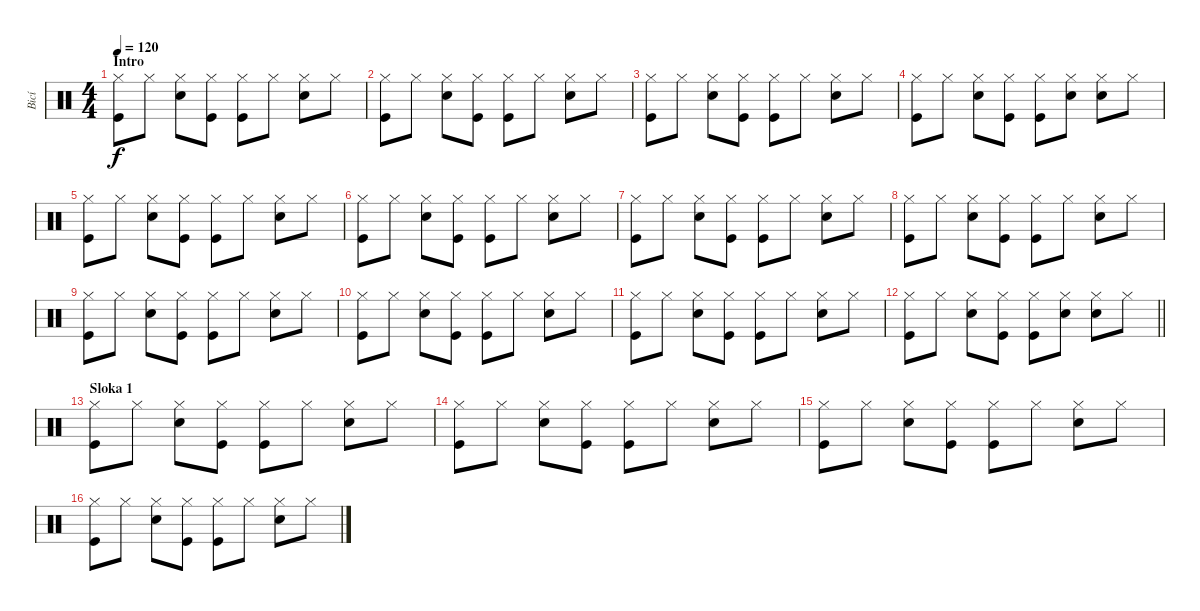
\track ("Bicí" "Bicí") {instrument percussion}
\staff {score}
\articulation defaults
\ts (4 4)
\section ("" "Intro")
\tempo 120
\clef neutral
\ks c
("Hi-Hat (closed)" "Kick (hit)").8{dy f} "Hi-Hat (closed)".8 ("Hi-Hat (closed)" "Snare (hit) 2").8 ("Hi-Hat (closed)" "Kick (hit)").8 ("Hi-Hat (closed)" "Kick (hit)").8 "Hi-Hat (closed)".8 ("Hi-Hat (closed)" "Snare (hit) 2").8 "Hi-Hat (closed)".8 |
("Hi-Hat (closed)" "Kick (hit)").8 "Hi-Hat (closed)".8 ("Hi-Hat (closed)" "Snare (hit) 2").8 ("Hi-Hat (closed)" "Kick (hit)").8 ("Hi-Hat (closed)" "Kick (hit)").8 "Hi-Hat (closed)".8 ("Hi-Hat (closed)" "Snare (hit) 2").8 "Hi-Hat (closed)".8 |
("Hi-Hat (closed)" "Kick (hit)").8 "Hi-Hat (closed)".8 ("Hi-Hat (closed)" "Snare (hit) 2").8 ("Hi-Hat (closed)" "Kick (hit)").8 ("Hi-Hat (closed)" "Kick (hit)").8 "Hi-Hat (closed)".8 ("Hi-Hat (closed)" "Snare (hit) 2").8 "Hi-Hat (closed)".8 |
("Hi-Hat (closed)" "Kick (hit)").8 "Hi-Hat (closed)".8 ("Hi-Hat (closed)" "Snare (hit) 2").8 ("Hi-Hat (closed)" "Kick (hit)").8 ("Hi-Hat (closed)" "Kick (hit)").8 ("Hi-Hat (closed)" "Snare (hit) 2").8 ("Hi-Hat (closed)" "Snare (hit) 2").8 "Hi-Hat (closed)".8 |
("Hi-Hat (closed)" "Kick (hit)").8 "Hi-Hat (closed)".8 ("Hi-Hat (closed)" "Snare (hit) 2").8 ("Hi-Hat (closed)" "Kick (hit)").8 ("Hi-Hat (closed)" "Kick (hit)").8 "Hi-Hat (closed)".8 ("Hi-Hat (closed)" "Snare (hit) 2").8 "Hi-Hat (closed)".8 |
("Hi-Hat (closed)" "Kick (hit)").8 "Hi-Hat (closed)".8 ("Hi-Hat (closed)" "Snare (hit) 2").8 ("Hi-Hat (closed)" "Kick (hit)").8 ("Hi-Hat (closed)" "Kick (hit)").8 "Hi-Hat (closed)".8 ("Hi-Hat (closed)" "Snare (hit) 2").8 "Hi-Hat (closed)".8 |
("Hi-Hat (closed)" "Kick (hit)").8 "Hi-Hat (closed)".8 ("Hi-Hat (closed)" "Snare (hit) 2").8 ("Hi-Hat (closed)" "Kick (hit)").8 ("Hi-Hat (closed)" "Kick (hit)").8 "Hi-Hat (closed)".8 ("Hi-Hat (closed)" "Snare (hit) 2").8 "Hi-Hat (closed)".8 |
("Hi-Hat (closed)" "Kick (hit)").8 "Hi-Hat (closed)".8 ("Hi-Hat (closed)" "Snare (hit) 2").8 ("Hi-Hat (closed)" "Kick (hit)").8 ("Hi-Hat (closed)" "Kick (hit)").8 "Hi-Hat (closed)".8 ("Hi-Hat (closed)" "Snare (hit) 2").8 "Hi-Hat (closed)".8 |
("Hi-Hat (closed)" "Kick (hit)").8 "Hi-Hat (closed)".8 ("Hi-Hat (closed)" "Snare (hit) 2").8 ("Hi-Hat (closed)" "Kick (hit)").8 ("Hi-Hat (closed)" "Kick (hit)").8 "Hi-Hat (closed)".8 ("Hi-Hat (closed)" "Snare (hit) 2").8 "Hi-Hat (closed)".8 |
("Hi-Hat (closed)" "Kick (hit)").8 "Hi-Hat (closed)".8 ("Hi-Hat (closed)" "Snare (hit) 2").8 ("Hi-Hat (closed)" "Kick (hit)").8 ("Hi-Hat (closed)" "Kick (hit)").8 "Hi-Hat (closed)".8 ("Hi-Hat (closed)" "Snare (hit) 2").8 "Hi-Hat (closed)".8 |
("Hi-Hat (closed)" "Kick (hit)").8 "Hi-Hat (closed)".8 ("Hi-Hat (closed)" "Snare (hit) 2").8 ("Hi-Hat (closed)" "Kick (hit)").8 ("Hi-Hat (closed)" "Kick (hit)").8 "Hi-Hat (closed)".8 ("Hi-Hat (closed)" "Snare (hit) 2").8 "Hi-Hat (closed)".8 |
\barLineRight lightlight
("Hi-Hat (closed)" "Kick (hit)").8 "Hi-Hat (closed)".8 ("Hi-Hat (closed)" "Snare (hit) 2").8 ("Hi-Hat (closed)" "Kick (hit)").8 ("Hi-Hat (closed)" "Kick (hit)").8 ("Hi-Hat (closed)" "Snare (hit) 2").8 ("Hi-Hat (closed)" "Snare (hit) 2").8 "Hi-Hat (closed)".8 |
\section ("" "Sloka 1")
("Hi-Hat (closed)" "Kick (hit)").8 "Hi-Hat (closed)".8 ("Hi-Hat (closed)" "Snare (hit) 2").8 ("Hi-Hat (closed)" "Kick (hit)").8 ("Hi-Hat (closed)" "Kick (hit)").8 "Hi-Hat (closed)".8 ("Hi-Hat (closed)" "Snare (hit) 2").8 "Hi-Hat (closed)".8 |
("Hi-Hat (closed)" "Kick (hit)").8 "Hi-Hat (closed)".8 ("Hi-Hat (closed)" "Snare (hit) 2").8 ("Hi-Hat (closed)" "Kick (hit)").8 ("Hi-Hat (closed)" "Kick (hit)").8 "Hi-Hat (closed)".8 ("Hi-Hat (closed)" "Snare (hit) 2").8 "Hi-Hat (closed)".8 |
("Hi-Hat (closed)" "Kick (hit)").8 "Hi-Hat (closed)".8 ("Hi-Hat (closed)" "Snare (hit) 2").8 ("Hi-Hat (closed)" "Kick (hit)").8 ("Hi-Hat (closed)" "Kick (hit)").8 "Hi-Hat (closed)".8 ("Hi-Hat (closed)" "Snare (hit) 2").8 "Hi-Hat (closed)".8 |
("Hi-Hat (closed)" "Kick (hit)").8 "Hi-Hat (closed)".8 ("Hi-Hat (closed)" "Snare (hit) 2").8 ("Hi-Hat (closed)" "Kick (hit)").8 ("Hi-Hat (closed)" "Kick (hit)").8 "Hi-Hat (closed)".8 ("Hi-Hat (closed)" "Snare (hit) 2").8 "Hi-Hat (closed)".8
